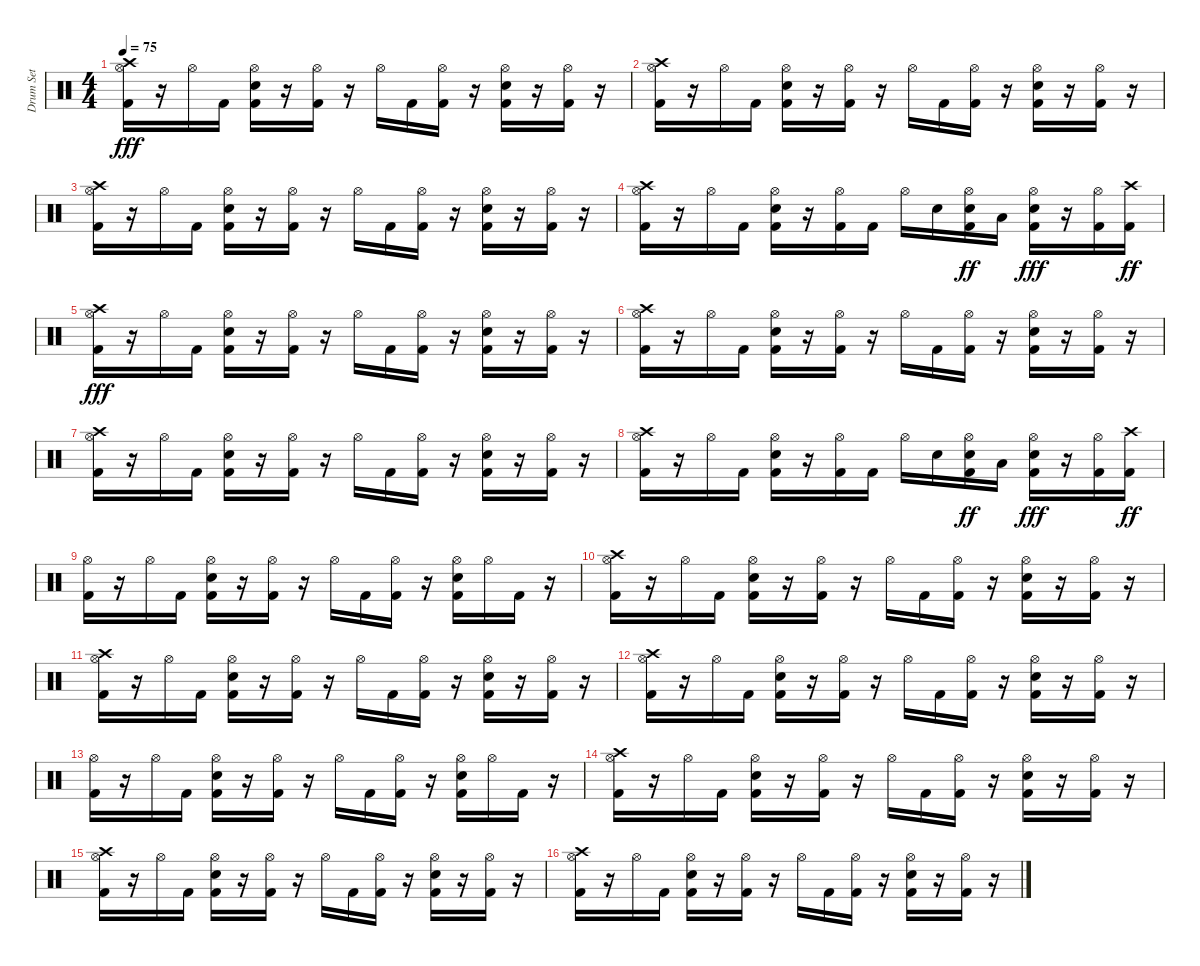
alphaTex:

\track ("Drum Set" "Drum Set") {instrument percussion}
\staff {score}
\articulation defaults
\ts (4 4)
\tempo 75
\clef neutral
\ks c
("Hi-Hat (open)" "Crash high (hit)" "Kick (hit) 2").16{dy fff} r.16 "Hi-Hat (open)".16 "Kick (hit) 2".16 ("Hi-Hat (open)" "Snare (hit) 2" "Kick (hit) 2").16 r.16 ("Hi-Hat (open)" "Kick (hit) 2").16 r.16 "Hi-Hat (open)".16 "Kick (hit) 2".16 ("Hi-Hat (open)" "Kick (hit) 2").16 r.16 ("Hi-Hat (open)" "Snare (hit) 2" "Kick (hit) 2").16 r.16 ("Hi-Hat (open)" "Kick (hit) 2").16 r.16 |
("Hi-Hat (open)" "Crash high (hit)" "Kick (hit) 2").16 r.16 "Hi-Hat (open)".16 "Kick (hit) 2".16 ("Hi-Hat (open)" "Snare (hit) 2" "Kick (hit) 2").16 r.16 ("Hi-Hat (open)" "Kick (hit) 2").16 r.16 "Hi-Hat (open)".16 "Kick (hit) 2".16 ("Hi-Hat (open)" "Kick (hit) 2").16 r.16 ("Hi-Hat (open)" "Snare (hit) 2" "Kick (hit) 2").16 r.16 ("Hi-Hat (open)" "Kick (hit) 2").16 r.16 |
("Hi-Hat (open)" "Crash high (hit)" "Kick (hit) 2").16 r.16 "Hi-Hat (open)".16 "Kick (hit) 2".16 ("Hi-Hat (open)" "Snare (hit) 2" "Kick (hit) 2").16 r.16 ("Hi-Hat (open)" "Kick (hit) 2").16 r.16 "Hi-Hat (open)".16 "Kick (hit) 2".16 ("Hi-Hat (open)" "Kick (hit) 2").16 r.16 ("Hi-Hat (open)" "Snare (hit) 2" "Kick (hit) 2").16 r.16 ("Hi-Hat (open)" "Kick (hit) 2").16 r.16 |
("Hi-Hat (open)" "Crash high (hit)" "Kick (hit) 2").16 r.16 "Hi-Hat (open)".16 "Kick (hit) 2".16 ("Hi-Hat (open)" "Snare (hit) 2" "Kick (hit) 2").16 r.16 ("Hi-Hat (open)" "Kick (hit) 2").16 "Kick (hit) 2".16 "Hi-Hat (open)".16 "Snare (hit) 2".16 ("Hi-Hat (open)" "Snare (hit) 2" "Kick (hit) 2").16{dy ff} "Low Floor Tom (hit)".16 ("Hi-Hat (open)" "Snare (hit) 2" "Kick (hit) 2").16{dy fff} r.16 ("Hi-Hat (open)" "Kick (hit) 2").16 ("Crash high (hit)" "Kick (hit) 2").16{dy ff} |
("Hi-Hat (open)" "Crash high (hit)" "Kick (hit) 2").16{dy fff} r.16 "Hi-Hat (open)".16 "Kick (hit) 2".16 ("Hi-Hat (open)" "Snare (hit) 2" "Kick (hit) 2").16 r.16 ("Hi-Hat (open)" "Kick (hit) 2").16 r.16 "Hi-Hat (open)".16 "Kick (hit) 2".16 ("Hi-Hat (open)" "Kick (hit) 2").16 r.16 ("Hi-Hat (open)" "Snare (hit) 2" "Kick (hit) 2").16 r.16 ("Hi-Hat (open)" "Kick (hit) 2").16 r.16 |
("Hi-Hat (open)" "Crash high (hit)" "Kick (hit) 2").16 r.16 "Hi-Hat (open)".16 "Kick (hit) 2".16 ("Hi-Hat (open)" "Snare (hit) 2" "Kick (hit) 2").16 r.16 ("Hi-Hat (open)" "Kick (hit) 2").16 r.16 "Hi-Hat (open)".16 "Kick (hit) 2".16 ("Hi-Hat (open)" "Kick (hit) 2").16 r.16 ("Hi-Hat (open)" "Snare (hit) 2" "Kick (hit) 2").16 r.16 ("Hi-Hat (open)" "Kick (hit) 2").16 r.16 |
("Hi-Hat (open)" "Crash high (hit)" "Kick (hit) 2").16 r.16 "Hi-Hat (open)".16 "Kick (hit) 2".16 ("Hi-Hat (open)" "Snare (hit) 2" "Kick (hit) 2").16 r.16 ("Hi-Hat (open)" "Kick (hit) 2").16 r.16 "Hi-Hat (open)".16 "Kick (hit) 2".16 ("Hi-Hat (open)" "Kick (hit) 2").16 r.16 ("Hi-Hat (open)" "Snare (hit) 2" "Kick (hit) 2").16 r.16 ("Hi-Hat (open)" "Kick (hit) 2").16 r.16 |
("Hi-Hat (open)" "Crash high (hit)" "Kick (hit) 2").16 r.16 "Hi-Hat (open)".16 "Kick (hit) 2".16 ("Hi-Hat (open)" "Snare (hit) 2" "Kick (hit) 2").16 r.16 ("Hi-Hat (open)" "Kick (hit) 2").16 "Kick (hit) 2".16 "Hi-Hat (open)".16 "Snare (hit) 2".16 ("Hi-Hat (open)" "Snare (hit) 2" "Kick (hit) 2").16{dy ff} "Low Floor Tom (hit)".16 ("Hi-Hat (open)" "Snare (hit) 2" "Kick (hit) 2").16{dy fff} r.16 ("Hi-Hat (open)" "Kick (hit) 2").16 ("Crash high (hit)" "Kick (hit) 2").16{dy ff} |
("Hi-Hat (open)" "Kick (hit) 2").16 r.16 "Hi-Hat (open)".16 "Kick (hit) 2".16 ("Hi-Hat (open)" "Snare (hit) 2" "Kick (hit) 2").16 r.16 ("Hi-Hat (open)" "Kick (hit) 2").16 r.16 "Hi-Hat (open)".16 "Kick (hit) 2".16 ("Hi-Hat (open)" "Kick (hit) 2").16 r.16 ("Hi-Hat (open)" "Snare (hit) 2" "Kick (hit) 2").16 "Hi-Hat (open)".16 "Kick (hit) 2".16 r.16 |
("Hi-Hat (open)" "Crash high (hit)" "Kick (hit) 2").16 r.16 "Hi-Hat (open)".16 "Kick (hit) 2".16 ("Hi-Hat (open)" "Snare (hit) 2" "Kick (hit) 2").16 r.16 ("Hi-Hat (open)" "Kick (hit) 2").16 r.16 "Hi-Hat (open)".16 "Kick (hit) 2".16 ("Hi-Hat (open)" "Kick (hit) 2").16 r.16 ("Hi-Hat (open)" "Snare (hit) 2" "Kick (hit) 2").16 r.16 ("Hi-Hat (open)" "Kick (hit) 2").16 r.16 |
("Hi-Hat (open)" "Crash high (hit)" "Kick (hit) 2").16 r.16 "Hi-Hat (open)".16 "Kick (hit) 2".16 ("Hi-Hat (open)" "Snare (hit) 2" "Kick (hit) 2").16 r.16 ("Hi-Hat (open)" "Kick (hit) 2").16 r.16 "Hi-Hat (open)".16 "Kick (hit) 2".16 ("Hi-Hat (open)" "Kick (hit) 2").16 r.16 ("Hi-Hat (open)" "Snare (hit) 2" "Kick (hit) 2").16 r.16 ("Hi-Hat (open)" "Kick (hit) 2").16 r.16 |
("Hi-Hat (open)" "Crash high (hit)" "Kick (hit) 2").16 r.16 "Hi-Hat (open)".16 "Kick (hit) 2".16 ("Hi-Hat (open)" "Snare (hit) 2" "Kick (hit) 2").16 r.16 ("Hi-Hat (open)" "Kick (hit) 2").16 r.16 "Hi-Hat (open)".16 "Kick (hit) 2".16 ("Hi-Hat (open)" "Kick (hit) 2").16 r.16 ("Hi-Hat (open)" "Snare (hit) 2" "Kick (hit) 2").16 r.16 ("Hi-Hat (open)" "Kick (hit) 2").16 r.16 |
("Hi-Hat (open)" "Kick (hit) 2").16 r.16 "Hi-Hat (open)".16 "Kick (hit) 2".16 ("Hi-Hat (open)" "Snare (hit) 2" "Kick (hit) 2").16 r.16 ("Hi-Hat (open)" "Kick (hit) 2").16 r.16 "Hi-Hat (open)".16 "Kick (hit) 2".16 ("Hi-Hat (open)" "Kick (hit) 2").16 r.16 ("Hi-Hat (open)" "Snare (hit) 2" "Kick (hit) 2").16 "Hi-Hat (open)".16 "Kick (hit) 2".16 r.16 |
("Hi-Hat (open)" "Crash high (hit)" "Kick (hit) 2").16 r.16 "Hi-Hat (open)".16 "Kick (hit) 2".16 ("Hi-Hat (open)" "Snare (hit) 2" "Kick (hit) 2").16 r.16 ("Hi-Hat (open)" "Kick (hit) 2").16 r.16 "Hi-Hat (open)".16 "Kick (hit) 2".16 ("Hi-Hat (open)" "Kick (hit) 2").16 r.16 ("Hi-Hat (open)" "Snare (hit) 2" "Kick (hit) 2").16 r.16 ("Hi-Hat (open)" "Kick (hit) 2").16 r.16 |
("Hi-Hat (open)" "Crash high (hit)" "Kick (hit) 2").16 r.16 "Hi-Hat (open)".16 "Kick (hit) 2".16 ("Hi-Hat (open)" "Snare (hit) 2" "Kick (hit) 2").16 r.16 ("Hi-Hat (open)" "Kick (hit) 2").16 r.16 "Hi-Hat (open)".16 "Kick (hit) 2".16 ("Hi-Hat (open)" "Kick (hit) 2").16 r.16 ("Hi-Hat (open)" "Snare (hit) 2" "Kick (hit) 2").16 r.16 ("Hi-Hat (open)" "Kick (hit) 2").16 r.16 |
("Hi-Hat (open)" "Crash high (hit)" "Kick (hit) 2").16 r.16 "Hi-Hat (open)".16 "Kick (hit) 2".16 ("Hi-Hat (open)" "Snare (hit) 2" "Kick (hit) 2").16 r.16 ("Hi-Hat (open)" "Kick (hit) 2").16 r.16 "Hi-Hat (open)".16 "Kick (hit) 2".16 ("Hi-Hat (open)" "Kick (hit) 2").16 r.16 ("Hi-Hat (open)" "Snare (hit) 2" "Kick (hit) 2").16 r.16 ("Hi-Hat (open)" "Kick (hit) 2").16 r.16
